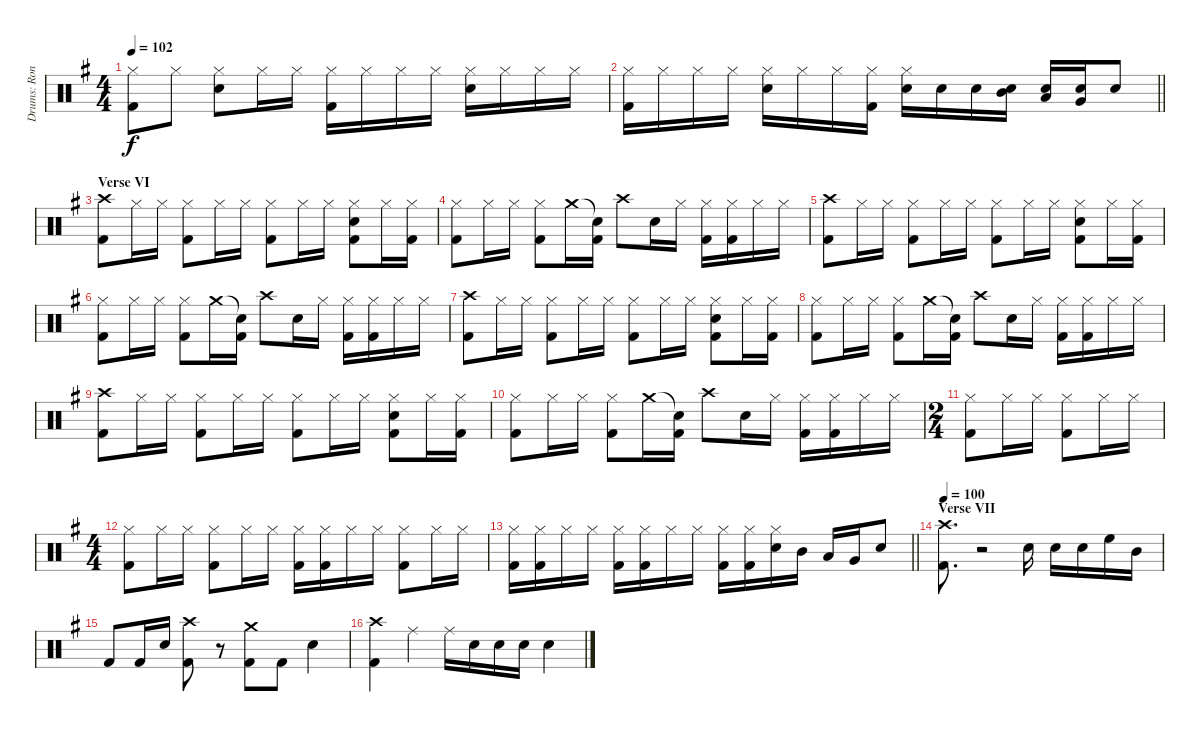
\track ("Drums: Ronnie" "Drums: Ron") {instrument percussion}
\staff {score}
\articulation defaults
\ts (4 4)
\tempo 102
\clef neutral
\ks g
("Hi-Hat (closed)" "Kick (hit) 2").8{dy f} "Hi-Hat (closed)".8 ("Hi-Hat (closed)" "Electric Snare (hit)").8 "Hi-Hat (closed)".16 "Hi-Hat (closed)".16 ("Hi-Hat (closed)" "Kick (hit) 2").16 "Hi-Hat (closed)".16 "Hi-Hat (closed)".16 "Hi-Hat (closed)".16 ("Hi-Hat (closed)" "Electric Snare (hit)").16 "Hi-Hat (closed)".16 "Hi-Hat (closed)".16 "Hi-Hat (closed)".16 |
\barLineRight lightlight
("Hi-Hat (closed)" "Kick (hit) 2").16 "Hi-Hat (closed)".16 "Hi-Hat (closed)".16 "Hi-Hat (closed)".16 ("Hi-Hat (closed)" "Electric Snare (hit)").16 "Hi-Hat (closed)".16 "Hi-Hat (closed)".16 ("Hi-Hat (closed)" "Kick (hit) 2").16 ("Hi-Hat (closed)" "Electric Snare (hit)").16 "Electric Snare (hit)".16 "Electric Snare (hit)".16 ("Electric Snare (hit)" "Mid Tom (hit)").16 ("Electric Snare (hit)" "Low Tom (hit)").16 ("Electric Snare (hit)" "Very Low Tom (hit)").16 "Electric Snare (hit)".8 |
\section ("" "Verse VI")
("Crash high (hit)" "Kick (hit) 2").8 "Hi-Hat (closed)".16 "Hi-Hat (closed)".16 ("Hi-Hat (closed)" "Kick (hit) 2").8 "Hi-Hat (closed)".16 "Hi-Hat (closed)".16 ("Hi-Hat (closed)" "Kick (hit) 2").8 "Hi-Hat (closed)".16 "Hi-Hat (closed)".16 ("Hi-Hat (closed)" "Electric Snare (hit)" "Kick (hit) 2").8 "Hi-Hat (closed)".16 ("Hi-Hat (closed)" "Kick (hit) 2").16 |
("Hi-Hat (closed)" "Kick (hit) 2").8 "Hi-Hat (closed)".16 "Hi-Hat (closed)".16 ("Hi-Hat (closed)" "Kick (hit) 2").8 "Crash medium (hit)".16 ("Snare (hit)"{t} "Kick (hit) 2").16 "Crash high (hit)".8 "Electric Snare (hit)".16 "Hi-Hat (closed)".16 ("Hi-Hat (closed)" "Kick (hit) 2").16 ("Hi-Hat (closed)" "Kick (hit) 2").16 "Hi-Hat (closed)".16 "Hi-Hat (closed)".16 |
("Crash high (hit)" "Kick (hit) 2").8 "Hi-Hat (closed)".16 "Hi-Hat (closed)".16 ("Hi-Hat (closed)" "Kick (hit) 2").8 "Hi-Hat (closed)".16 "Hi-Hat (closed)".16 ("Hi-Hat (closed)" "Kick (hit) 2").8 "Hi-Hat (closed)".16 "Hi-Hat (closed)".16 ("Hi-Hat (closed)" "Electric Snare (hit)" "Kick (hit) 2").8 "Hi-Hat (closed)".16 ("Hi-Hat (closed)" "Kick (hit) 2").16 |
("Hi-Hat (closed)" "Kick (hit) 2").8 "Hi-Hat (closed)".16 "Hi-Hat (closed)".16 ("Hi-Hat (closed)" "Kick (hit) 2").8 "Crash medium (hit)".16 ("Snare (hit)"{t} "Kick (hit) 2").16 "Crash high (hit)".8 "Electric Snare (hit)".16 "Hi-Hat (closed)".16 ("Hi-Hat (closed)" "Kick (hit) 2").16 ("Hi-Hat (closed)" "Kick (hit) 2").16 "Hi-Hat (closed)".16 "Hi-Hat (closed)".16 |
("Crash high (hit)" "Kick (hit) 2").8 "Hi-Hat (closed)".16 "Hi-Hat (closed)".16 ("Hi-Hat (closed)" "Kick (hit) 2").8 "Hi-Hat (closed)".16 "Hi-Hat (closed)".16 ("Hi-Hat (closed)" "Kick (hit) 2").8 "Hi-Hat (closed)".16 "Hi-Hat (closed)".16 ("Hi-Hat (closed)" "Electric Snare (hit)" "Kick (hit) 2").8 "Hi-Hat (closed)".16 ("Hi-Hat (closed)" "Kick (hit) 2").16 |
("Hi-Hat (closed)" "Kick (hit) 2").8 "Hi-Hat (closed)".16 "Hi-Hat (closed)".16 ("Hi-Hat (closed)" "Kick (hit) 2").8 "Crash medium (hit)".16 ("Snare (hit)"{t} "Kick (hit) 2").16 "Crash high (hit)".8 "Electric Snare (hit)".16 "Hi-Hat (closed)".16 ("Hi-Hat (closed)" "Kick (hit) 2").16 ("Hi-Hat (closed)" "Kick (hit) 2").16 "Hi-Hat (closed)".16 "Hi-Hat (closed)".16 |
("Crash high (hit)" "Kick (hit) 2").8 "Hi-Hat (closed)".16 "Hi-Hat (closed)".16 ("Hi-Hat (closed)" "Kick (hit) 2").8 "Hi-Hat (closed)".16 "Hi-Hat (closed)".16 ("Hi-Hat (closed)" "Kick (hit) 2").8 "Hi-Hat (closed)".16 "Hi-Hat (closed)".16 ("Hi-Hat (closed)" "Electric Snare (hit)" "Kick (hit) 2").8 "Hi-Hat (closed)".16 ("Hi-Hat (closed)" "Kick (hit) 2").16 |
("Hi-Hat (closed)" "Kick (hit) 2").8 "Hi-Hat (closed)".16 "Hi-Hat (closed)".16 ("Hi-Hat (closed)" "Kick (hit) 2").8 "Crash medium (hit)".16 ("Snare (hit)"{t} "Kick (hit) 2").16 "Crash high (hit)".8 "Electric Snare (hit)".16 "Hi-Hat (closed)".16 ("Hi-Hat (closed)" "Kick (hit) 2").16 ("Hi-Hat (closed)" "Kick (hit) 2").16 "Hi-Hat (closed)".16 "Hi-Hat (closed)".16 |
\ts (2 4)
("Hi-Hat (closed)" "Kick (hit) 2").8 "Hi-Hat (closed)".16 "Hi-Hat (closed)".16 ("Hi-Hat (closed)" "Kick (hit) 2").8 "Hi-Hat (closed)".16 "Hi-Hat (closed)".16 |
\ts (4 4)
("Hi-Hat (closed)" "Kick (hit) 2").8 "Hi-Hat (closed)".16 "Hi-Hat (closed)".16 ("Hi-Hat (closed)" "Kick (hit) 2").8 "Hi-Hat (closed)".16 "Hi-Hat (closed)".16 ("Hi-Hat (closed)" "Kick (hit) 2").16 ("Hi-Hat (closed)" "Kick (hit) 2").16 "Hi-Hat (closed)".16 "Hi-Hat (closed)".16 ("Hi-Hat (closed)" "Kick (hit) 2").8 "Hi-Hat (closed)".16 "Hi-Hat (closed)".16 |
\barLineRight lightlight
("Hi-Hat (closed)" "Kick (hit) 2").16 ("Hi-Hat (closed)" "Kick (hit) 2").16 "Hi-Hat (closed)".16 "Hi-Hat (closed)".16 ("Hi-Hat (closed)" "Kick (hit) 2").16 ("Hi-Hat (closed)" "Kick (hit) 2").16 "Hi-Hat (closed)".16 "Hi-Hat (closed)".16 ("Hi-Hat (closed)" "Kick (hit) 2").16 ("Hi-Hat (closed)" "Kick (hit) 2").16 ("Hi-Hat (closed)" "Electric Snare (hit)").16 "Mid Tom (hit)".16 "Low Tom (hit)".16 "Very Low Tom (hit)".16 "Electric Snare (hit)".8 |
\section ("" "Verse VII")
\tempo 100
("Crash high (hit)" "Kick (hit) 2").8{d} r.2 "Electric Snare (hit)".16 "Electric Snare (hit)".16 "Electric Snare (hit)".16 "High Floor Tom (hit)".16 "Mid Tom (hit)".16 |
"Kick (hit) 2".8 "Kick (hit) 2".16 "Electric Snare (hit)".16 ("Crash high (hit)" "Kick (hit) 2").8 r.8 ("Crash medium (hit)" "Kick (hit) 2").8 "Kick (hit) 2".8 "Electric Snare (hit)".4 |
("Crash high (hit)" "Kick (hit) 2").4 "Ride (middle)".4 "Ride (middle)".16 "Electric Snare (hit)".16 "Electric Snare (hit)".16 "Electric Snare (hit)".16 "Electric Snare (hit)".4
